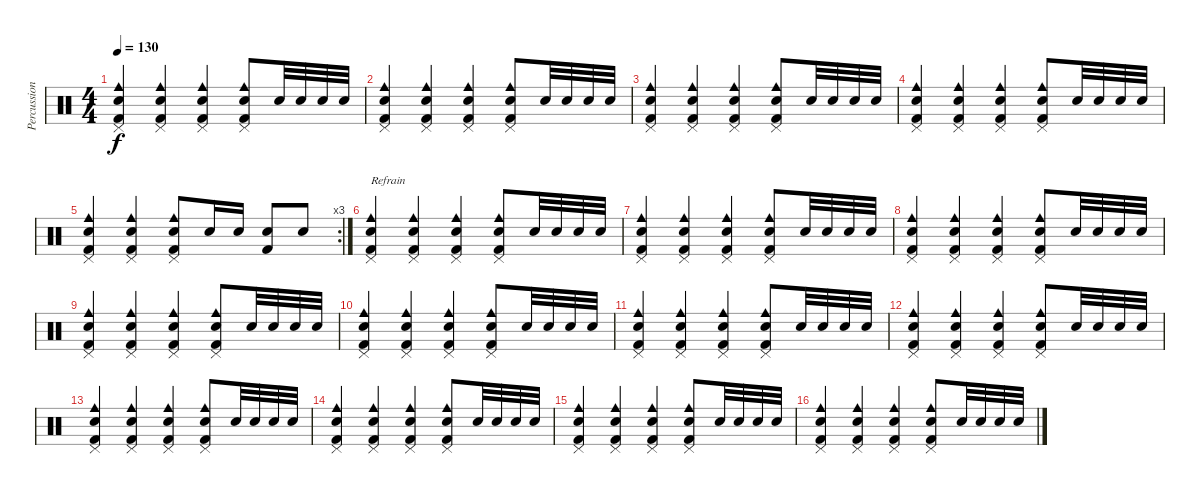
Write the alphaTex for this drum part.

\track ("Percussion" "Percussion") {instrument percussion}
\staff {score}
\articulation defaults
\ts (4 4)
\tempo 130
\clef neutral
\ks c
("Pedal Hi-Hat (hit)" "Cowbell medium (hit)" "Snare (hit) 2" "Kick (hit) 2").4{dy f} ("Pedal Hi-Hat (hit)" "Cowbell medium (hit)" "Snare (hit) 2" "Kick (hit) 2").4 ("Pedal Hi-Hat (hit)" "Cowbell medium (hit)" "Snare (hit) 2" "Kick (hit) 2").4 ("Pedal Hi-Hat (hit)" "Cowbell medium (hit)" "Snare (hit) 2" "Kick (hit) 2").8 "Snare (hit) 2".32 "Snare (hit) 2".32 "Snare (hit) 2".32 "Snare (hit) 2".32 |
("Pedal Hi-Hat (hit)" "Cowbell medium (hit)" "Snare (hit) 2" "Kick (hit) 2").4 ("Pedal Hi-Hat (hit)" "Cowbell medium (hit)" "Snare (hit) 2" "Kick (hit) 2").4 ("Pedal Hi-Hat (hit)" "Cowbell medium (hit)" "Snare (hit) 2" "Kick (hit) 2").4 ("Pedal Hi-Hat (hit)" "Cowbell medium (hit)" "Snare (hit) 2" "Kick (hit) 2").8 "Snare (hit) 2".32 "Snare (hit) 2".32 "Snare (hit) 2".32 "Snare (hit) 2".32 |
("Pedal Hi-Hat (hit)" "Cowbell medium (hit)" "Snare (hit) 2" "Kick (hit) 2").4 ("Pedal Hi-Hat (hit)" "Cowbell medium (hit)" "Snare (hit) 2" "Kick (hit) 2").4 ("Pedal Hi-Hat (hit)" "Cowbell medium (hit)" "Snare (hit) 2" "Kick (hit) 2").4 ("Pedal Hi-Hat (hit)" "Cowbell medium (hit)" "Snare (hit) 2" "Kick (hit) 2").8 "Snare (hit) 2".32 "Snare (hit) 2".32 "Snare (hit) 2".32 "Snare (hit) 2".32 |
("Pedal Hi-Hat (hit)" "Cowbell medium (hit)" "Snare (hit) 2" "Kick (hit) 2").4 ("Pedal Hi-Hat (hit)" "Cowbell medium (hit)" "Snare (hit) 2" "Kick (hit) 2").4 ("Pedal Hi-Hat (hit)" "Cowbell medium (hit)" "Snare (hit) 2" "Kick (hit) 2").4 ("Pedal Hi-Hat (hit)" "Cowbell medium (hit)" "Snare (hit) 2" "Kick (hit) 2").8 "Snare (hit) 2".32 "Snare (hit) 2".32 "Snare (hit) 2".32 "Snare (hit) 2".32 |
\rc 3
("Pedal Hi-Hat (hit)" "Cowbell medium (hit)" "Snare (hit) 2" "Kick (hit) 2").4 ("Pedal Hi-Hat (hit)" "Cowbell medium (hit)" "Snare (hit) 2" "Kick (hit) 2").4 ("Pedal Hi-Hat (hit)" "Cowbell medium (hit)" "Snare (hit) 2" "Kick (hit) 2").8 "Snare (hit) 2".16 "Snare (hit) 2".16 ("Snare (hit) 2" "Kick (hit) 2").8 "Snare (hit) 2".8 |
("Pedal Hi-Hat (hit)" "Cowbell medium (hit)" "Snare (hit) 2" "Kick (hit) 2").4{txt "Refrain"} ("Pedal Hi-Hat (hit)" "Cowbell medium (hit)" "Snare (hit) 2" "Kick (hit) 2").4 ("Pedal Hi-Hat (hit)" "Cowbell medium (hit)" "Snare (hit) 2" "Kick (hit) 2").4 ("Pedal Hi-Hat (hit)" "Cowbell medium (hit)" "Snare (hit) 2" "Kick (hit) 2").8 "Snare (hit) 2".32 "Snare (hit) 2".32 "Snare (hit) 2".32 "Snare (hit) 2".32 |
("Pedal Hi-Hat (hit)" "Cowbell medium (hit)" "Snare (hit) 2" "Kick (hit) 2").4 ("Pedal Hi-Hat (hit)" "Cowbell medium (hit)" "Snare (hit) 2" "Kick (hit) 2").4 ("Pedal Hi-Hat (hit)" "Cowbell medium (hit)" "Snare (hit) 2" "Kick (hit) 2").4 ("Pedal Hi-Hat (hit)" "Cowbell medium (hit)" "Snare (hit) 2" "Kick (hit) 2").8 "Snare (hit) 2".32 "Snare (hit) 2".32 "Snare (hit) 2".32 "Snare (hit) 2".32 |
("Pedal Hi-Hat (hit)" "Cowbell medium (hit)" "Snare (hit) 2" "Kick (hit) 2").4 ("Pedal Hi-Hat (hit)" "Cowbell medium (hit)" "Snare (hit) 2" "Kick (hit) 2").4 ("Pedal Hi-Hat (hit)" "Cowbell medium (hit)" "Snare (hit) 2" "Kick (hit) 2").4 ("Pedal Hi-Hat (hit)" "Cowbell medium (hit)" "Snare (hit) 2" "Kick (hit) 2").8 "Snare (hit) 2".32 "Snare (hit) 2".32 "Snare (hit) 2".32 "Snare (hit) 2".32 |
("Pedal Hi-Hat (hit)" "Cowbell medium (hit)" "Snare (hit) 2" "Kick (hit) 2").4 ("Pedal Hi-Hat (hit)" "Cowbell medium (hit)" "Snare (hit) 2" "Kick (hit) 2").4 ("Pedal Hi-Hat (hit)" "Cowbell medium (hit)" "Snare (hit) 2" "Kick (hit) 2").4 ("Pedal Hi-Hat (hit)" "Cowbell medium (hit)" "Snare (hit) 2" "Kick (hit) 2").8 "Snare (hit) 2".32 "Snare (hit) 2".32 "Snare (hit) 2".32 "Snare (hit) 2".32 |
("Pedal Hi-Hat (hit)" "Cowbell medium (hit)" "Snare (hit) 2" "Kick (hit) 2").4 ("Pedal Hi-Hat (hit)" "Cowbell medium (hit)" "Snare (hit) 2" "Kick (hit) 2").4 ("Pedal Hi-Hat (hit)" "Cowbell medium (hit)" "Snare (hit) 2" "Kick (hit) 2").4 ("Pedal Hi-Hat (hit)" "Cowbell medium (hit)" "Snare (hit) 2" "Kick (hit) 2").8 "Snare (hit) 2".32 "Snare (hit) 2".32 "Snare (hit) 2".32 "Snare (hit) 2".32 |
("Pedal Hi-Hat (hit)" "Cowbell medium (hit)" "Snare (hit) 2" "Kick (hit) 2").4 ("Pedal Hi-Hat (hit)" "Cowbell medium (hit)" "Snare (hit) 2" "Kick (hit) 2").4 ("Pedal Hi-Hat (hit)" "Cowbell medium (hit)" "Snare (hit) 2" "Kick (hit) 2").4 ("Pedal Hi-Hat (hit)" "Cowbell medium (hit)" "Snare (hit) 2" "Kick (hit) 2").8 "Snare (hit) 2".32 "Snare (hit) 2".32 "Snare (hit) 2".32 "Snare (hit) 2".32 |
("Pedal Hi-Hat (hit)" "Cowbell medium (hit)" "Snare (hit) 2" "Kick (hit) 2").4 ("Pedal Hi-Hat (hit)" "Cowbell medium (hit)" "Snare (hit) 2" "Kick (hit) 2").4 ("Pedal Hi-Hat (hit)" "Cowbell medium (hit)" "Snare (hit) 2" "Kick (hit) 2").4 ("Pedal Hi-Hat (hit)" "Cowbell medium (hit)" "Snare (hit) 2" "Kick (hit) 2").8 "Snare (hit) 2".32 "Snare (hit) 2".32 "Snare (hit) 2".32 "Snare (hit) 2".32 |
("Pedal Hi-Hat (hit)" "Cowbell medium (hit)" "Snare (hit) 2" "Kick (hit) 2").4 ("Pedal Hi-Hat (hit)" "Cowbell medium (hit)" "Snare (hit) 2" "Kick (hit) 2").4 ("Pedal Hi-Hat (hit)" "Cowbell medium (hit)" "Snare (hit) 2" "Kick (hit) 2").4 ("Pedal Hi-Hat (hit)" "Cowbell medium (hit)" "Snare (hit) 2" "Kick (hit) 2").8 "Snare (hit) 2".32 "Snare (hit) 2".32 "Snare (hit) 2".32 "Snare (hit) 2".32 |
("Pedal Hi-Hat (hit)" "Cowbell medium (hit)" "Snare (hit) 2" "Kick (hit) 2").4 ("Pedal Hi-Hat (hit)" "Cowbell medium (hit)" "Snare (hit) 2" "Kick (hit) 2").4 ("Pedal Hi-Hat (hit)" "Cowbell medium (hit)" "Snare (hit) 2" "Kick (hit) 2").4 ("Pedal Hi-Hat (hit)" "Cowbell medium (hit)" "Snare (hit) 2" "Kick (hit) 2").8 "Snare (hit) 2".32 "Snare (hit) 2".32 "Snare (hit) 2".32 "Snare (hit) 2".32 |
("Pedal Hi-Hat (hit)" "Cowbell medium (hit)" "Snare (hit) 2" "Kick (hit) 2").4 ("Pedal Hi-Hat (hit)" "Cowbell medium (hit)" "Snare (hit) 2" "Kick (hit) 2").4 ("Pedal Hi-Hat (hit)" "Cowbell medium (hit)" "Snare (hit) 2" "Kick (hit) 2").4 ("Pedal Hi-Hat (hit)" "Cowbell medium (hit)" "Snare (hit) 2" "Kick (hit) 2").8 "Snare (hit) 2".32 "Snare (hit) 2".32 "Snare (hit) 2".32 "Snare (hit) 2".32 |
("Pedal Hi-Hat (hit)" "Cowbell medium (hit)" "Snare (hit) 2" "Kick (hit) 2").4 ("Pedal Hi-Hat (hit)" "Cowbell medium (hit)" "Snare (hit) 2" "Kick (hit) 2").4 ("Pedal Hi-Hat (hit)" "Cowbell medium (hit)" "Snare (hit) 2" "Kick (hit) 2").4 ("Pedal Hi-Hat (hit)" "Cowbell medium (hit)" "Snare (hit) 2" "Kick (hit) 2").8 "Snare (hit) 2".32 "Snare (hit) 2".32 "Snare (hit) 2".32 "Snare (hit) 2".32
